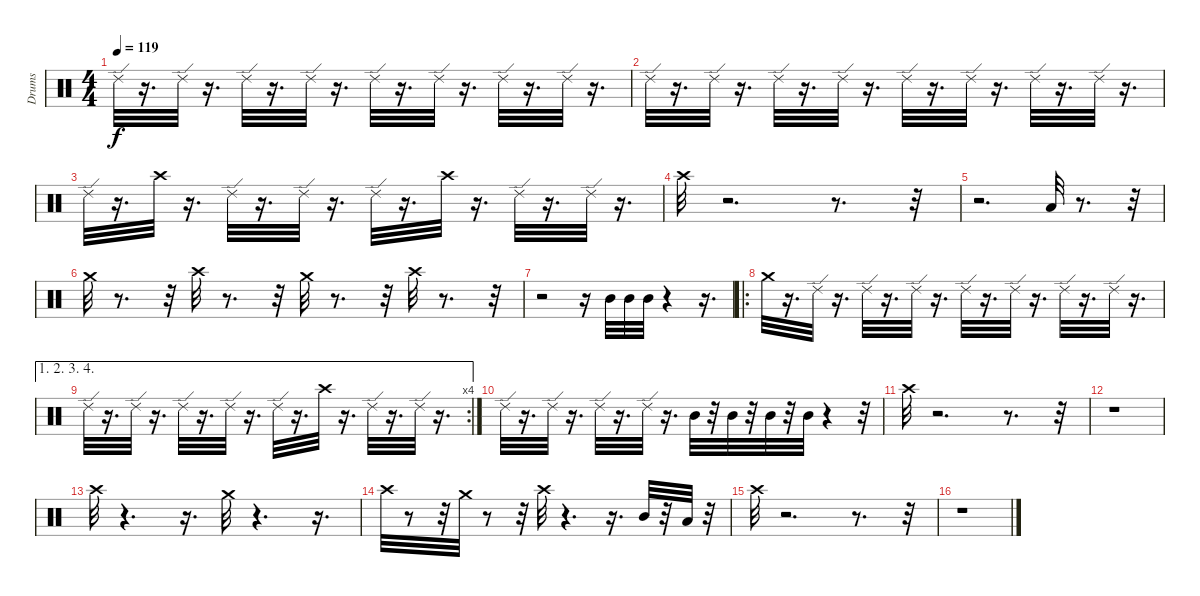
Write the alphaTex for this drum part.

\track ("Drums" "Drums") {instrument percussion}
\staff {score}
\articulation defaults
\ts (4 4)
\tempo 119
\clef neutral
\ks c "Ride (edge) 2".32{dy f}
r.16{d} "Ride (edge) 2".32 r.16{d} "Ride (edge) 2".32 r.16{d} "Ride (edge) 2".32 r.16{d} "Ride (edge) 2".32 r.16{d} "Ride (edge) 2".32 r.16{d} "Ride (edge) 2".32 r.16{d} "Ride (edge) 2".32 r.16{d} |
"Ride (edge) 2".32 r.16{d} "Ride (edge) 2".32 r.16{d} "Ride (edge) 2".32 r.16{d} "Ride (edge) 2".32 r.16{d} "Ride (edge) 2".32 r.16{d} "Ride (edge) 2".32 r.16{d} "Ride (edge) 2".32 r.16{d} "Ride (edge) 2".32 r.16{d} |
"Ride (edge) 2".32 r.16{d} "Crash high (hit)".32 r.16{d} "Ride (edge) 2".32 r.16{d} "Ride (edge) 2".32 r.16{d} "Ride (edge) 2".32 r.16{d} "Crash high (hit)".32 r.16{d} "Ride (edge) 2".32 r.16{d} "Ride (edge) 2".32 r.16{d} |
"Crash high (hit)".32 r.2{d} r.8{d} r.32 |
r.2{d} "Low Tom (hit)".32 r.8{d} r.32 |
"Crash medium (hit)".32 r.8{d} r.32 "Crash high (hit)".32 r.8{d} r.32 "Crash medium (hit)".32 r.8{d} r.32 "Crash high (hit)".32 r.8{d} r.32 |
r.2 r.16 "Mid Tom (hit)".32 "Mid Tom (hit)".32 "Mid Tom (hit)".32 r.4 r.16{d} |
\ro "Crash medium (hit)".32
r.16{d} "Ride (edge) 2".32 r.16{d} "Ride (edge) 2".32 r.16{d} "Ride (edge) 2".32 r.16{d} "Ride (edge) 2".32 r.16{d} "Ride (edge) 2".32 r.16{d} "Ride (edge) 2".32 r.16{d} "Ride (edge) 2".32 r.16{d} |
\ae (1 2 3 4)
\rc 4 "Ride (edge) 2".32
r.16{d} "Ride (edge) 2".32 r.16{d} "Ride (edge) 2".32 r.16{d} "Ride (edge) 2".32 r.16{d} "Ride (edge) 2".32 r.16{d} "Crash high (hit)".32 r.16{d} "Ride (edge) 2".32 r.16{d} "Ride (edge) 2".32 r.16{d} |
"Ride (edge) 2".32 r.16{d} "Ride (edge) 2".32 r.16{d} "Ride (edge) 2".32 r.16{d} "Ride (edge) 2".32 r.16{d} "Mid Tom (hit)".32 r.32 "Mid Tom (hit)".32 r.32 "Mid Tom (hit)".32 r.32 "Mid Tom (hit)".32 r.4 r.32 |
"Crash high (hit)".32 r.2{d} r.8{d} r.32 |
r.1 |
"Crash high (hit)".32 r.4{d} r.16{d} "Crash medium (hit)".32 r.4{d} r.16{d} |
"Crash high (hit)".32 r.8 r.32 "Crash medium (hit)".32 r.8 r.32 "Crash high (hit)".32 r.4{d} r.16{d} "Mid Tom (hit)".32 r.32 "Low Tom (hit)".32 r.32 |
"Crash high (hit)".32 r.2{d} r.8{d} r.32 |
r.1
